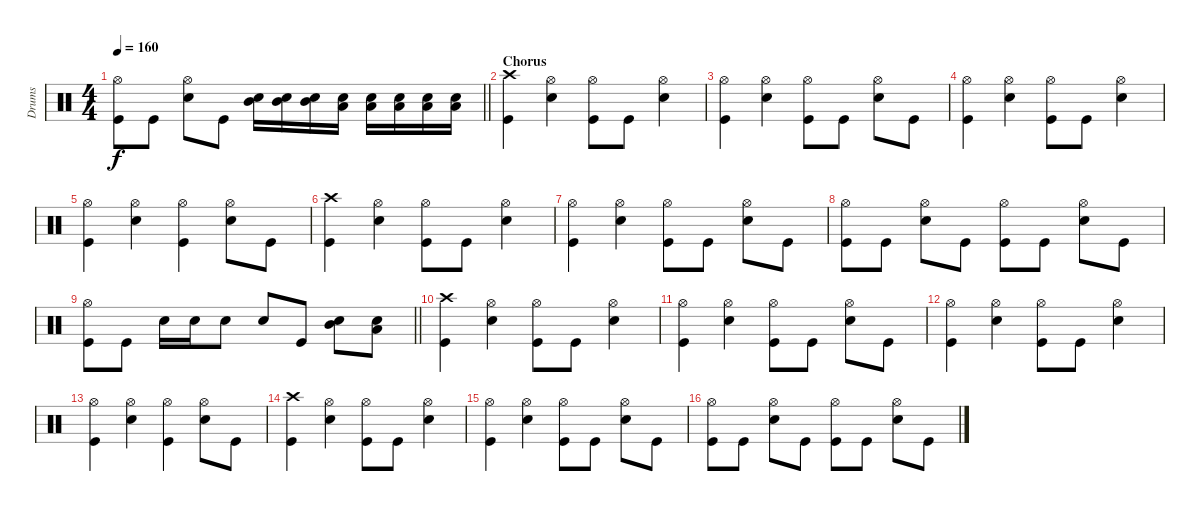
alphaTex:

\track ("Drums " "Drums ") {instrument percussion}
\staff {score}
\articulation defaults
\ts (4 4)
\tempo 160
\clef neutral
\barLineRight lightlight
\ks c
("Hi-Hat (open)" "Kick (hit)").8{dy f} "Kick (hit)".8 ("Hi-Hat (open)" "Electric Snare (hit)").8 "Kick (hit)".8 ("Mid Tom (hit)" "Electric Snare (hit)").16 ("Mid Tom (hit)" "Electric Snare (hit)").16 ("Mid Tom (hit)" "Electric Snare (hit)").16 ("Low Tom (hit)" "Electric Snare (hit)").16 ("Low Tom (hit)" "Electric Snare (hit)").16 ("Low Tom (hit)" "Electric Snare (hit)").16 ("Low Floor Tom (hit)" "Electric Snare (hit)").16 ("Low Floor Tom (hit)" "Electric Snare (hit)").16 |
\section ("" "Chorus ")
("Crash high (hit)" "Kick (hit)").4 ("Hi-Hat (open)" "Electric Snare (hit)").4 ("Hi-Hat (open)" "Kick (hit)").8 "Kick (hit)".8 ("Hi-Hat (open)" "Electric Snare (hit)").4 |
("Hi-Hat (open)" "Kick (hit)").4 ("Hi-Hat (open)" "Electric Snare (hit)").4 ("Hi-Hat (open)" "Kick (hit)").8 "Kick (hit)".8 ("Hi-Hat (open)" "Electric Snare (hit)").8 "Kick (hit)".8 |
("Hi-Hat (open)" "Kick (hit)").4 ("Hi-Hat (open)" "Electric Snare (hit)").4 ("Hi-Hat (open)" "Kick (hit)").8 "Kick (hit)".8 ("Hi-Hat (open)" "Electric Snare (hit)").4 |
("Hi-Hat (open)" "Kick (hit)").4 ("Hi-Hat (open)" "Electric Snare (hit)").4 ("Hi-Hat (open)" "Kick (hit)").4 ("Hi-Hat (open)" "Electric Snare (hit)").8 "Kick (hit)".8 |
("Crash high (hit)" "Kick (hit)").4 ("Hi-Hat (open)" "Electric Snare (hit)").4 ("Hi-Hat (open)" "Kick (hit)").8 "Kick (hit)".8 ("Hi-Hat (open)" "Electric Snare (hit)").4 |
("Hi-Hat (open)" "Kick (hit)").4 ("Hi-Hat (open)" "Electric Snare (hit)").4 ("Hi-Hat (open)" "Kick (hit)").8 "Kick (hit)".8 ("Hi-Hat (open)" "Electric Snare (hit)").8 "Kick (hit)".8 |
("Hi-Hat (open)" "Kick (hit)").8 "Kick (hit)".8 ("Hi-Hat (open)" "Electric Snare (hit)").8 "Kick (hit)".8 ("Hi-Hat (open)" "Kick (hit)").8 "Kick (hit)".8 ("Hi-Hat (open)" "Electric Snare (hit)").8 "Kick (hit)".8 |
\barLineRight lightlight
("Hi-Hat (open)" "Kick (hit)").8 "Kick (hit)".8 "Electric Snare (hit)".16 "Electric Snare (hit)".16 "Electric Snare (hit)".8 "Electric Snare (hit)".8 "Kick (hit)".8 ("Mid Tom (hit)" "Electric Snare (hit)").8 ("Low Floor Tom (hit)" "Electric Snare (hit)").8 |
("Crash high (hit)" "Kick (hit)").4 ("Hi-Hat (open)" "Electric Snare (hit)").4 ("Hi-Hat (open)" "Kick (hit)").8 "Kick (hit)".8 ("Hi-Hat (open)" "Electric Snare (hit)").4 |
("Hi-Hat (open)" "Kick (hit)").4 ("Hi-Hat (open)" "Electric Snare (hit)").4 ("Hi-Hat (open)" "Kick (hit)").8 "Kick (hit)".8 ("Hi-Hat (open)" "Electric Snare (hit)").8 "Kick (hit)".8 |
("Hi-Hat (open)" "Kick (hit)").4 ("Hi-Hat (open)" "Electric Snare (hit)").4 ("Hi-Hat (open)" "Kick (hit)").8 "Kick (hit)".8 ("Hi-Hat (open)" "Electric Snare (hit)").4 |
("Hi-Hat (open)" "Kick (hit)").4 ("Hi-Hat (open)" "Electric Snare (hit)").4 ("Hi-Hat (open)" "Kick (hit)").4 ("Hi-Hat (open)" "Electric Snare (hit)").8 "Kick (hit)".8 |
("Crash high (hit)" "Kick (hit)").4 ("Hi-Hat (open)" "Electric Snare (hit)").4 ("Hi-Hat (open)" "Kick (hit)").8 "Kick (hit)".8 ("Hi-Hat (open)" "Electric Snare (hit)").4 |
("Hi-Hat (open)" "Kick (hit)").4 ("Hi-Hat (open)" "Electric Snare (hit)").4 ("Hi-Hat (open)" "Kick (hit)").8 "Kick (hit)".8 ("Hi-Hat (open)" "Electric Snare (hit)").8 "Kick (hit)".8 |
("Hi-Hat (open)" "Kick (hit)").8 "Kick (hit)".8 ("Hi-Hat (open)" "Electric Snare (hit)").8 "Kick (hit)".8 ("Hi-Hat (open)" "Kick (hit)").8 "Kick (hit)".8 ("Hi-Hat (open)" "Electric Snare (hit)").8 "Kick (hit)".8
